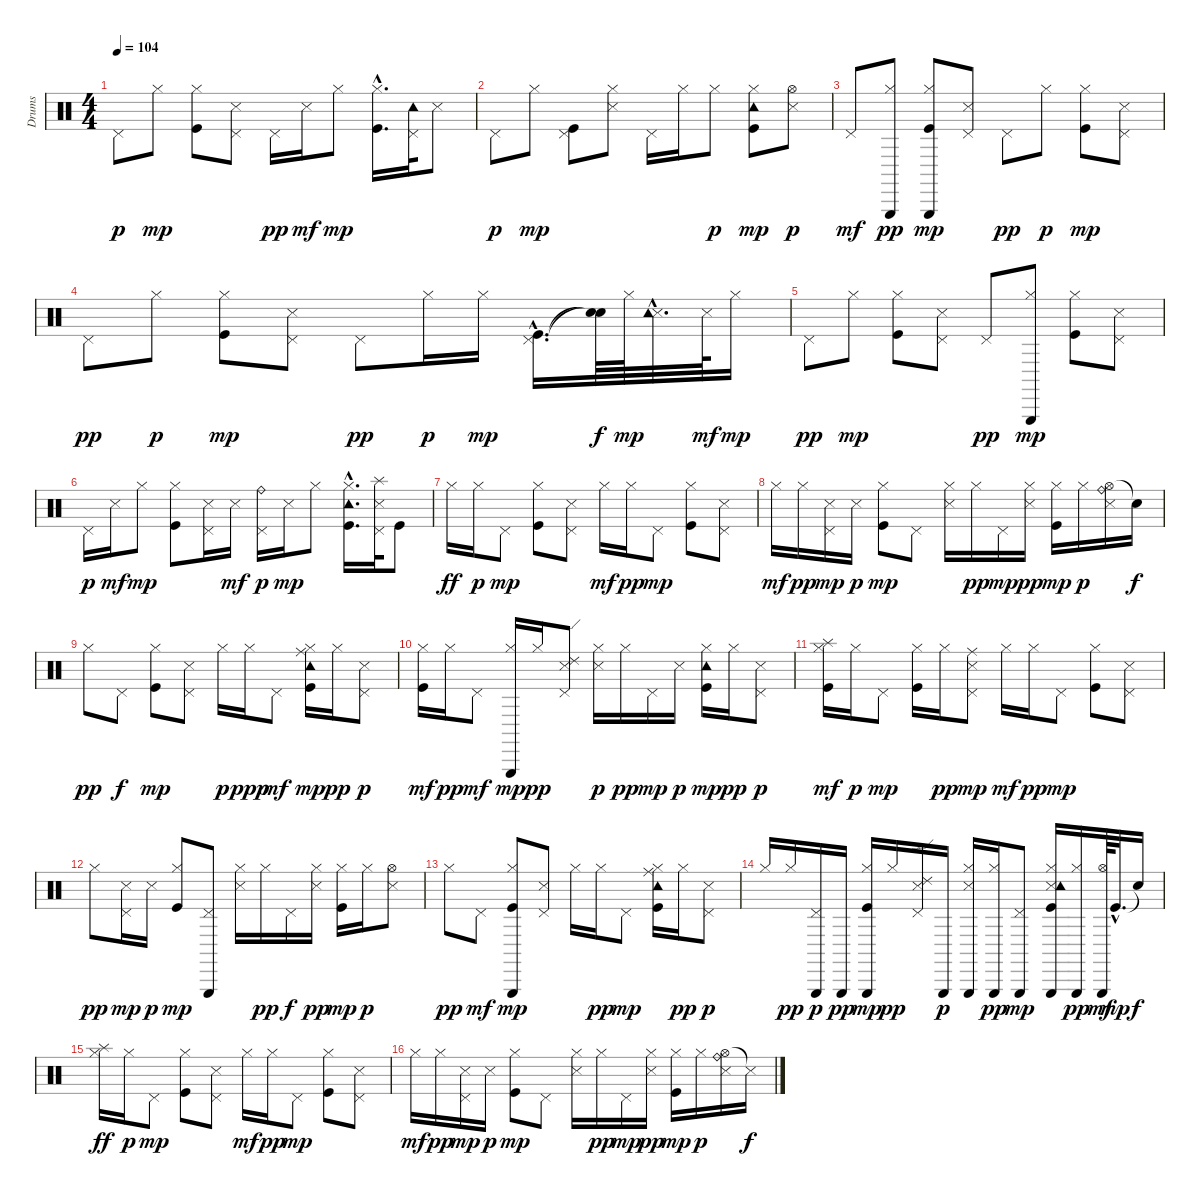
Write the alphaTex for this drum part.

\track ("Drums" "Drums") {instrument percussion}
\staff {score}
\articulation defaults
\ts (4 4)
\tempo 104
\clef neutral
\ks c "Pedal Hi-Hat (hit)".8{dy p} "Hi-Hat (closed)".8{dy mp}
("Hi-Hat (closed)" "Kick (hit)").8 ("Pedal Hi-Hat (hit)" "Snare (side stick) 3").8 "Pedal Hi-Hat (hit)".16{dy pp} "Snare (side stick) 3".16{dy mf} "Hi-Hat (closed)".8{dy mp} ("Hi-Hat (closed)"{hac} "Kick (hit)"{hac}).16{d} ("Pedal Hi-Hat (hit)" "Tambourine (hit)").32 "Snare (side stick) 3".8 |
"Pedal Hi-Hat (hit)".8{dy p} "Hi-Hat (closed)".8{dy mp} ("Pedal Hi-Hat (hit)" "Kick (hit)").8 ("Hi-Hat (closed)" "Snare (side stick) 3").8 "Pedal Hi-Hat (hit)".16 "Hi-Hat (closed)".16 "Hi-Hat (closed)".8{dy p} ("Hi-Hat (closed)" "Tambourine (hit)" "Kick (hit)").8{dy mp} ("Hi-Hat (open)" "Snare (side stick) 3").8{dy p} |
"Pedal Hi-Hat (hit)".8{dy mf} ("Hi-Hat (closed)" "Triangle (hit)").8{dy pp} ("Hi-Hat (closed)" "Triangle (hit)" "Kick (hit)").8{dy mp} ("Pedal Hi-Hat (hit)" "Snare (side stick) 3").8 "Pedal Hi-Hat (hit)".8{dy pp} "Hi-Hat (closed)".8{dy p} ("Hi-Hat (closed)" "Kick (hit)").8{dy mp} ("Pedal Hi-Hat (hit)" "Snare (side stick) 3").8 |
"Pedal Hi-Hat (hit)".8{dy pp} "Hi-Hat (closed)".8{dy p} ("Hi-Hat (closed)" "Kick (hit)").8{dy mp} ("Pedal Hi-Hat (hit)" "Snare (side stick) 3").8 "Pedal Hi-Hat (hit)".8{dy pp} "Hi-Hat (closed)".16{dy p} "Hi-Hat (closed)".16{dy mp} ("Pedal Hi-Hat (hit)"{hac} "Kick (hit)"{hac}).16{d} ("Snare (hit)"{t} "Snare (hit)"{t}).64{dy f} "Hi-Hat (closed)".64{dy mp} ("Snare (side stick) 3"{hac} "Tambourine (hit)"{hac}).32{d} "Snare (side stick) 3".64{dy mf} "Hi-Hat (closed)".16{dy mp} |
"Pedal Hi-Hat (hit)".8{dy pp} "Hi-Hat (closed)".8{dy mp} ("Hi-Hat (closed)" "Kick (hit)").8 ("Pedal Hi-Hat (hit)" "Snare (side stick) 3").8 "Pedal Hi-Hat (hit)".8{dy pp} ("Hi-Hat (closed)" "Triangle (hit)").8{dy mp} ("Hi-Hat (closed)" "Kick (hit)").8 ("Pedal Hi-Hat (hit)" "Snare (side stick) 3").8 |
"Pedal Hi-Hat (hit)".16{dy p} "Snare (side stick) 3".16{dy mf} "Hi-Hat (closed)".8{dy mp} ("Hi-Hat (closed)" "Kick (hit)").8 ("Pedal Hi-Hat (hit)" "Snare (side stick) 3").16 "Snare (side stick) 3".16{dy mf} ("Pedal Hi-Hat (hit)" "Ride (bell)").16{dy p} "Snare (side stick) 3".16{dy mp} "Hi-Hat (closed)".8 ("Hi-Hat (closed)"{hac} "Tambourine (hit)"{hac} "Kick (hit)"{hac}).16{d} ("Pedal Hi-Hat (hit)" "Splash (hit)" "Snare (side stick) 3").32 "Kick (hit)".8 |
"Hi-Hat (closed)".16{dy ff} "Hi-Hat (closed)".16{dy p} "Pedal Hi-Hat (hit)".8{dy mp} ("Hi-Hat (closed)" "Kick (hit)").8 ("Pedal Hi-Hat (hit)" "Snare (side stick) 3").8 "Hi-Hat (closed)".16{dy mf} "Hi-Hat (closed)".16{dy pp} "Pedal Hi-Hat (hit)".8{dy mp} ("Hi-Hat (closed)" "Kick (hit)").8 ("Pedal Hi-Hat (hit)" "Snare (side stick) 3").8 |
"Hi-Hat (closed)".16{dy mf} "Hi-Hat (closed)".16{dy pp} ("Pedal Hi-Hat (hit)" "Snare (side stick) 3").16{dy mp} "Snare (side stick) 3".16{dy p} ("Hi-Hat (closed)" "Kick (hit)").8{dy mp} "Pedal Hi-Hat (hit)".8 ("Hi-Hat (closed)" "Snare (side stick) 3").16 "Hi-Hat (closed)".16{dy pp} "Pedal Hi-Hat (hit)".16{dy mp} ("Hi-Hat (closed)" "Snare (side stick) 3").16{dy pp} ("Hi-Hat (closed)" "Kick (hit)").16{dy mp} "Hi-Hat (closed)".16{dy p} ("Hi-Hat (open)" "Snare (side stick) 3" "Ride (bell)").16 "Snare (hit)"{t}.16{dy f} |
"Hi-Hat (closed)".8{dy pp} "Pedal Hi-Hat (hit)".8{dy f} ("Hi-Hat (closed)" "Kick (hit)").8{dy mp} ("Pedal Hi-Hat (hit)" "Snare (side stick) 3").8 "Hi-Hat (closed)".16{dy p} "Hi-Hat (closed)".16{dy ppp} "Pedal Hi-Hat (hit)".8{dy mf} ("Hi-Hat (closed)" "Ride (middle)" "Tambourine (hit)" "Kick (hit)").16{dy mp} "Hi-Hat (closed)".16{dy pp} ("Pedal Hi-Hat (hit)" "Snare (side stick) 3").8{dy p} |
("Hi-Hat (closed)" "Kick (hit)").16{dy mf} "Hi-Hat (closed)".16{dy pp} "Pedal Hi-Hat (hit)".8{dy mf} ("Hi-Hat (closed)" "Triangle (hit)").16{dy mp} "Hi-Hat (closed)".16{dy pp} ("Pedal Hi-Hat (hit)" "Ride (edge) 2" "Snare (side stick) 3").8 ("Hi-Hat (closed)" "Snare (side stick) 3").16{dy p} "Hi-Hat (closed)".16{dy pp} "Pedal Hi-Hat (hit)".16{dy mp} "Snare (side stick) 3".16{dy p} ("Hi-Hat (closed)" "Tambourine (hit)" "Kick (hit)").16{dy mp} "Hi-Hat (closed)".16{dy pp} ("Pedal Hi-Hat (hit)" "Snare (side stick) 3").8{dy p} |
("Hi-Hat (closed)" "Splash (hit)" "Kick (hit)").16{dy mf} "Hi-Hat (closed)".16{dy p} "Pedal Hi-Hat (hit)".8{dy mp} ("Hi-Hat (closed)" "Kick (hit)").16 "Hi-Hat (closed)".16{dy pp} ("Pedal Hi-Hat (hit)" "Ride (middle)" "Snare (side stick) 3").8{dy mp} "Hi-Hat (closed)".16{dy mf} "Hi-Hat (closed)".16{dy pp} "Pedal Hi-Hat (hit)".8{dy mp} ("Hi-Hat (closed)" "Kick (hit)").8 ("Pedal Hi-Hat (hit)" "Snare (side stick) 3").8 |
"Hi-Hat (closed)".8{dy pp} ("Pedal Hi-Hat (hit)" "Snare (side stick) 3").16{dy mp} "Snare (side stick) 3".16{dy p} ("Hi-Hat (closed)" "Kick (hit)").8{dy mp} ("Pedal Hi-Hat (hit)" "Triangle (hit)").8 ("Hi-Hat (closed)" "Snare (side stick) 3").16 "Hi-Hat (closed)".16{dy pp} "Pedal Hi-Hat (hit)".16{dy f} ("Hi-Hat (closed)" "Snare (side stick) 3").16{dy pp} ("Hi-Hat (closed)" "Kick (hit)").16{dy mp} "Hi-Hat (closed)".16{dy p} ("Hi-Hat (open)" "Snare (side stick) 3").8 |
"Hi-Hat (closed)".8{dy pp} "Pedal Hi-Hat (hit)".8{dy mf} ("Hi-Hat (closed)" "Triangle (hit)" "Kick (hit)").8{dy mp} ("Pedal Hi-Hat (hit)" "Snare (side stick) 3").8 "Hi-Hat (closed)".16 "Hi-Hat (closed)".16{dy pp} "Pedal Hi-Hat (hit)".8{dy mp} ("Hi-Hat (closed)" "Ride (middle)" "Tambourine (hit)" "Kick (hit)").16 "Hi-Hat (closed)".16{dy pp} ("Pedal Hi-Hat (hit)" "Snare (side stick) 3").8{dy p} |
"Hi-Hat (closed)".16 "Hi-Hat (closed)".16{dy pp} ("Pedal Hi-Hat (hit)" "Triangle (hit)").16{dy p} "Triangle (hit)".16{dy pp} ("Hi-Hat (closed)" "Triangle (hit)" "Kick (hit)").16{dy mp} "Hi-Hat (closed)".16{dy pp} ("Pedal Hi-Hat (hit)" "Ride (edge) 2" "Snare (side stick) 3").16 "Triangle (hit)".16{dy p} ("Hi-Hat (closed)" "Snare (side stick) 3" "Triangle (hit)").16 ("Hi-Hat (closed)" "Triangle (hit)").16{dy pp} ("Pedal Hi-Hat (hit)" "Triangle (hit)").8{dy mp} ("Hi-Hat (closed)" "Snare (side stick) 3" "Tambourine (hit)" "Triangle (hit)" "Kick (hit)").16 ("Hi-Hat (closed)" "Triangle (hit)").16{dy pp} ("Hi-Hat (open)" "Triangle (hit)").64{dy mf} "Kick (hit)"{hac}.32{d dy mp} "Snare (hit)"{t}.16{dy f} |
("Hi-Hat (closed)" "Splash (hit)").16{dy ff} "Hi-Hat (closed)".16{dy p} "Pedal Hi-Hat (hit)".8{dy mp} ("Hi-Hat (closed)" "Kick (hit)").8 ("Pedal Hi-Hat (hit)" "Snare (side stick) 3").8 "Hi-Hat (closed)".16{dy mf} "Hi-Hat (closed)".16{dy pp} "Pedal Hi-Hat (hit)".8{dy mp} ("Hi-Hat (closed)" "Kick (hit)").8 ("Pedal Hi-Hat (hit)" "Snare (side stick) 3").8 |
"Hi-Hat (closed)".16{dy mf} "Hi-Hat (closed)".16{dy pp} ("Pedal Hi-Hat (hit)" "Snare (side stick) 3").16{dy mp} "Snare (side stick) 3".16{dy p} ("Hi-Hat (closed)" "Kick (hit)").8{dy mp} "Pedal Hi-Hat (hit)".8 ("Hi-Hat (closed)" "Snare (side stick) 3").16 "Hi-Hat (closed)".16{dy pp} "Pedal Hi-Hat (hit)".16{dy mp} ("Hi-Hat (closed)" "Snare (side stick) 3").16{dy pp} ("Hi-Hat (closed)" "Kick (hit)").16{dy mp} "Hi-Hat (closed)".16{dy p} ("Hi-Hat (open)" "Snare (side stick) 3" "Ride (bell)").16 "Snare (side stick) 3"{t}.16{dy f}
